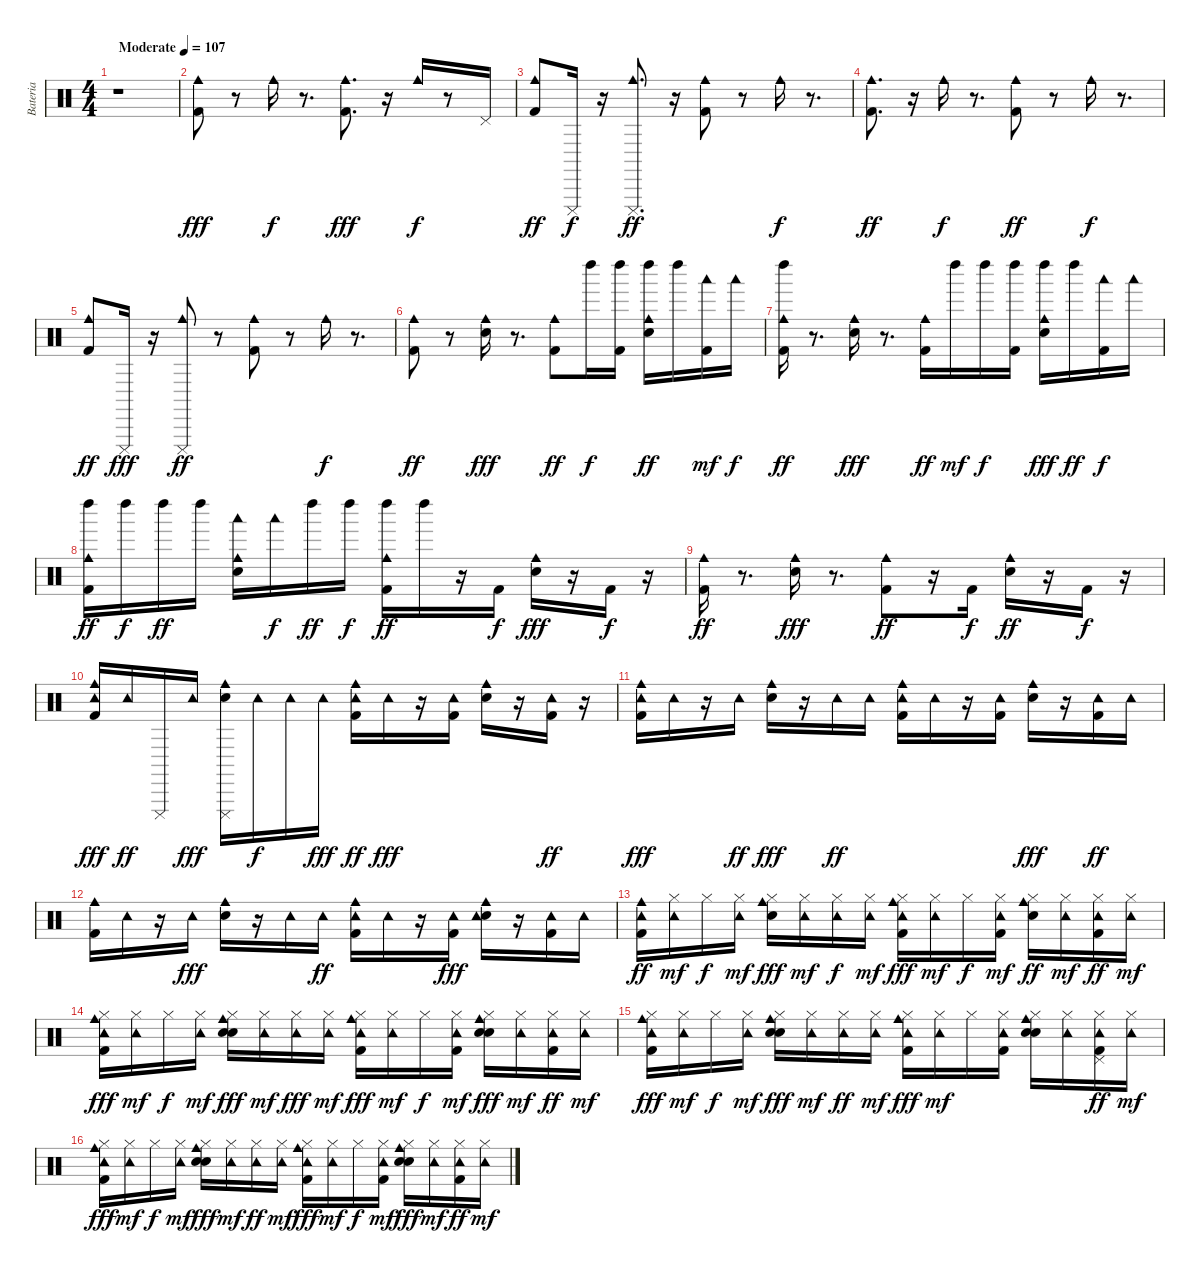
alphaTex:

\track ("Bateria" "Bateria") {instrument percussion}
\staff {score}
\articulation defaults
\ts (4 4)
\tempo (107 "Moderate")
\clef neutral
\ks c
r.1{dy fff} |
("Cowbell medium (hit)" "Kick (hit) 2").8 r.8 "Cowbell medium (hit)".16{dy f} r.8{d} ("Cowbell medium (hit)" "Kick (hit) 2").8{d dy fff} r.16 "Cowbell medium (hit)".16{dy f} r.8 "Pedal Hi-Hat (hit)".16 |
("Cowbell medium (hit)" "Kick (hit) 2").8{dy ff} "Cuica (mute)".16{dy f} r.16 ("Cowbell medium (hit)" "Cuica (mute)").8{d dy ff} r.16 ("Cowbell medium (hit)" "Kick (hit) 2").8 r.8 "Cowbell medium (hit)".16{dy f} r.8{d} |
("Cowbell medium (hit)" "Kick (hit) 2").8{d dy ff} r.16 "Cowbell medium (hit)".16{dy f} r.8{d} ("Cowbell medium (hit)" "Kick (hit) 2").8{dy ff} r.8 "Cowbell medium (hit)".16{dy f} r.8{d} |
("Cowbell medium (hit)" "Kick (hit) 2").8{dy ff} "Cuica (mute)".16{dy fff} r.16 ("Cowbell medium (hit)" "Cuica (mute)").8{dy ff} r.8 ("Cowbell medium (hit)" "Kick (hit) 2").8 r.8 "Cowbell medium (hit)".16{dy f} r.8{d} |
("Cowbell medium (hit)" "Kick (hit) 2").8{dy ff} r.8 ("Cowbell medium (hit)" "Snare (hit) 2").16{dy fff} r.8{d} ("Cowbell medium (hit)" "Kick (hit) 2").8{dy ff} "Left Maraca (hit)".16{dy f} ("Kick (hit) 2" "Left Maraca (hit)").16 ("Cowbell medium (hit)" "Snare (hit) 2" "Left Maraca (hit)").16{dy ff} "Left Maraca (hit)".16 ("Kick (hit) 2" "Woodblock low (hit)").16{dy mf} "Woodblock low (hit)".16{dy f} |
("Cowbell medium (hit)" "Kick (hit) 2" "Left Maraca (hit)").16{dy ff} r.8{d} ("Cowbell medium (hit)" "Snare (hit) 2").16{dy fff} r.8{d} ("Cowbell medium (hit)" "Kick (hit) 2").16{dy ff} "Left Maraca (hit)".16{dy mf} "Left Maraca (hit)".16{dy f} ("Kick (hit) 2" "Left Maraca (hit)").16 ("Cowbell medium (hit)" "Snare (hit) 2" "Left Maraca (hit)").16{dy fff} "Left Maraca (hit)".16{dy ff} ("Kick (hit) 2" "Woodblock low (hit)").16{dy f} "Woodblock low (hit)".16 |
("Cowbell medium (hit)" "Kick (hit) 2" "Left Maraca (hit)").16{dy ff} "Left Maraca (hit)".16{dy f} "Left Maraca (hit)".16{dy ff} "Left Maraca (hit)".16 ("Cowbell medium (hit)" "Snare (hit) 2" "Woodblock low (hit)").16 "Woodblock low (hit)".16{dy f} "Left Maraca (hit)".16{dy ff} "Left Maraca (hit)".16{dy f} ("Cowbell medium (hit)" "Kick (hit) 2" "Left Maraca (hit)").16{dy ff} "Left Maraca (hit)".16 r.16 "Kick (hit) 2".16{dy f} ("Cowbell medium (hit)" "Snare (hit) 2").16{dy fff} r.16 "Kick (hit) 2".16{dy f} r.16 |
("Cowbell medium (hit)" "Kick (hit) 2").16{dy ff} r.8{d} ("Cowbell medium (hit)" "Snare (hit) 2").16{dy fff} r.8{d} ("Cowbell medium (hit)" "Kick (hit) 2").8{dy ff} r.16 "Kick (hit) 2".16{dy f} ("Cowbell medium (hit)" "Snare (hit) 2").16{dy ff} r.16 "Kick (hit) 2".16{dy f} r.16 |
("Cowbell medium (hit)" "Kick (hit) 2" "Tambourine (hit)").16{dy fff} "Tambourine (hit)".16{dy ff} "Cuica (mute)".16 "Tambourine (hit)".16{dy fff} ("Cowbell medium (hit)" "Snare (hit) 2" "Cuica (mute)").16 "Tambourine (hit)".16{dy f} "Tambourine (hit)".16 "Tambourine (hit)".16{dy fff} ("Cowbell medium (hit)" "Kick (hit) 2" "Tambourine (hit)").16{dy ff} "Tambourine (hit)".16{dy fff} r.16 ("Kick (hit) 2" "Tambourine (hit)").16 ("Cowbell medium (hit)" "Snare (hit) 2").16 r.16 ("Kick (hit) 2" "Tambourine (hit)").16{dy ff} r.16 |
("Cowbell medium (hit)" "Kick (hit) 2" "Tambourine (hit)").16{dy fff} "Tambourine (hit)".16 r.16 "Tambourine (hit)".16{dy ff} ("Cowbell medium (hit)" "Snare (hit) 2").16{dy fff} r.16 "Tambourine (hit)".16{dy ff} "Tambourine (hit)".16 ("Cowbell medium (hit)" "Kick (hit) 2" "Tambourine (hit)").16 "Tambourine (hit)".16 r.16 ("Kick (hit) 2" "Tambourine (hit)").16 ("Cowbell medium (hit)" "Snare (hit) 2").16{dy fff} r.16 ("Kick (hit) 2" "Tambourine (hit)").16{dy ff} "Tambourine (hit)".16 |
("Cowbell medium (hit)" "Kick (hit) 2").16 "Tambourine (hit)".16 r.16 "Tambourine (hit)".16{dy fff} ("Cowbell medium (hit)" "Snare (hit) 2").16 r.16 "Tambourine (hit)".16 "Tambourine (hit)".16{dy ff} ("Cowbell medium (hit)" "Kick (hit) 2" "Tambourine (hit)").16 "Tambourine (hit)".16 r.16 ("Kick (hit) 2" "Tambourine (hit)").16{dy fff} ("Cowbell medium (hit)" "Snare (hit) 2" "Tambourine (hit)").16 r.16 ("Kick (hit) 2" "Tambourine (hit)").16 "Tambourine (hit)".16 |
("Cowbell medium (hit)" "Kick (hit) 2" "Tambourine (hit)").16{dy ff} ("Tambourine (hit)" "Hi-Hat (closed)").16{dy mf} "Hi-Hat (closed)".16{dy f} ("Tambourine (hit)" "Hi-Hat (closed)").16{dy mf} ("Cowbell medium (hit)" "Snare (hit) 2" "Hi-Hat (closed)").16{dy fff} ("Tambourine (hit)" "Hi-Hat (closed)").16{dy mf} ("Tambourine (hit)" "Hi-Hat (closed)").16{dy f} ("Tambourine (hit)" "Hi-Hat (closed)").16{dy mf} ("Cowbell medium (hit)" "Kick (hit) 2" "Tambourine (hit)" "Hi-Hat (closed)").16{dy fff} ("Tambourine (hit)" "Hi-Hat (closed)").16{dy mf} "Hi-Hat (closed)".16{dy f} ("Kick (hit) 2" "Tambourine (hit)" "Hi-Hat (closed)").16{dy mf} ("Cowbell medium (hit)" "Snare (hit) 2" "Hi-Hat (closed)").16{dy ff} ("Tambourine (hit)" "Hi-Hat (closed)").16{dy mf} ("Kick (hit) 2" "Tambourine (hit)" "Hi-Hat (closed)").16{dy ff} ("Tambourine (hit)" "Hi-Hat (closed)").16{dy mf} |
("Cowbell medium (hit)" "Kick (hit) 2" "Tambourine (hit)" "Hi-Hat (closed)").16{dy fff} ("Tambourine (hit)" "Hi-Hat (closed)").16{dy mf} "Hi-Hat (closed)".16{dy f} ("Tambourine (hit)" "Hi-Hat (closed)").16{dy mf} ("Hand Clap (hit)" "Cowbell medium (hit)" "Snare (hit) 2" "Hi-Hat (closed)").16{dy fff} ("Tambourine (hit)" "Hi-Hat (closed)").16{dy mf} ("Tambourine (hit)" "Hi-Hat (closed)").16{dy fff} ("Tambourine (hit)" "Hi-Hat (closed)").16{dy mf} ("Cowbell medium (hit)" "Kick (hit) 2" "Tambourine (hit)" "Hi-Hat (closed)").16{dy fff} ("Tambourine (hit)" "Hi-Hat (closed)").16{dy mf} "Hi-Hat (closed)".16{dy f} ("Kick (hit) 2" "Tambourine (hit)" "Hi-Hat (closed)").16{dy mf} ("Hand Clap (hit)" "Cowbell medium (hit)" "Snare (hit) 2" "Hi-Hat (closed)").16{dy fff} ("Tambourine (hit)" "Hi-Hat (closed)").16{dy mf} ("Kick (hit) 2" "Tambourine (hit)" "Hi-Hat (closed)").16{dy ff} ("Tambourine (hit)" "Hi-Hat (closed)").16{dy mf} |
("Cowbell medium (hit)" "Kick (hit) 2" "Tambourine (hit)" "Hi-Hat (closed)").16{dy fff} ("Tambourine (hit)" "Hi-Hat (closed)").16{dy mf} "Hi-Hat (closed)".16{dy f} ("Tambourine (hit)" "Hi-Hat (closed)").16{dy mf} ("Hand Clap (hit)" "Cowbell medium (hit)" "Snare (hit) 2" "Hi-Hat (closed)").16{dy fff} ("Tambourine (hit)" "Hi-Hat (closed)").16{dy mf} ("Tambourine (hit)" "Hi-Hat (closed)").16{dy ff} ("Tambourine (hit)" "Hi-Hat (closed)").16{dy mf} ("Cowbell medium (hit)" "Kick (hit) 2" "Tambourine (hit)" "Hi-Hat (closed)").16{dy fff} ("Tambourine (hit)" "Hi-Hat (closed)").16{dy mf} "Hi-Hat (closed)".16 ("Kick (hit) 2" "Tambourine (hit)" "Hi-Hat (closed)").16 ("Hand Clap (hit)" "Cowbell medium (hit)" "Snare (hit) 2" "Hi-Hat (closed)").16 ("Tambourine (hit)" "Hi-Hat (closed)").16 ("Kick (hit) 2" "Tambourine (hit)" "Pedal Hi-Hat (hit)" "Hi-Hat (closed)").16{dy ff} ("Tambourine (hit)" "Hi-Hat (closed)").16{dy mf} |
("Cowbell medium (hit)" "Kick (hit) 2" "Tambourine (hit)" "Hi-Hat (closed)").16{dy fff} ("Tambourine (hit)" "Hi-Hat (closed)").16{dy mf} "Hi-Hat (closed)".16{dy f} ("Tambourine (hit)" "Hi-Hat (closed)").16{dy mf} ("Hand Clap (hit)" "Cowbell medium (hit)" "Snare (hit) 2" "Hi-Hat (closed)").16{dy fff} ("Tambourine (hit)" "Hi-Hat (closed)").16{dy mf} ("Tambourine (hit)" "Hi-Hat (closed)").16{dy ff} ("Tambourine (hit)" "Hi-Hat (closed)").16{dy mf} ("Cowbell medium (hit)" "Kick (hit) 2" "Tambourine (hit)" "Hi-Hat (closed)").16{dy fff} ("Tambourine (hit)" "Hi-Hat (closed)").16{dy mf} "Hi-Hat (closed)".16{dy f} ("Kick (hit) 2" "Tambourine (hit)" "Hi-Hat (closed)").16{dy mf} ("Hand Clap (hit)" "Cowbell medium (hit)" "Snare (hit) 2" "Hi-Hat (closed)").16{dy fff} ("Tambourine (hit)" "Hi-Hat (closed)").16{dy mf} ("Kick (hit) 2" "Tambourine (hit)" "Hi-Hat (closed)").16{dy ff} ("Tambourine (hit)" "Hi-Hat (closed)").16{dy mf}
